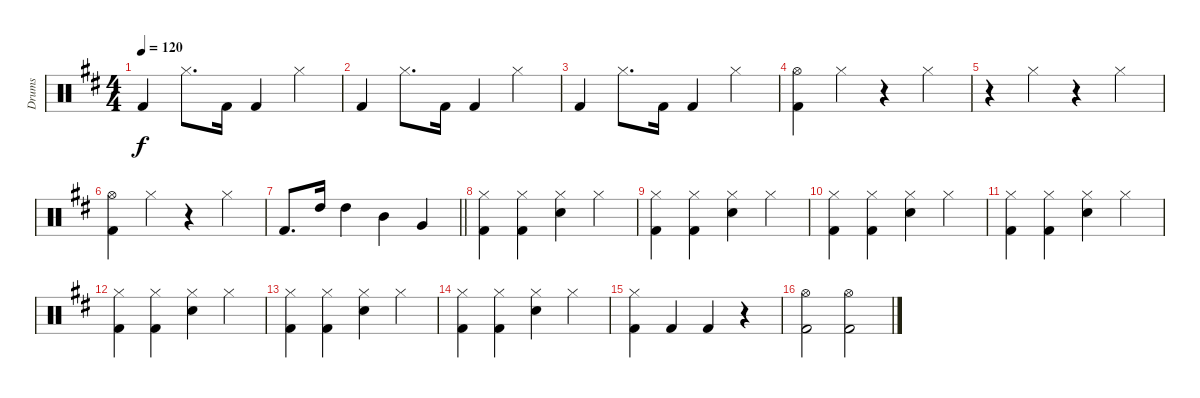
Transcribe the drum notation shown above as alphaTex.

\track ("Drums" "Drums") {instrument percussion}
\staff {score}
\articulation defaults
\ts (4 4)
\tempo 120
\clef neutral
\ks d "Kick (hit) 2".4{dy f} "Hi-Hat (closed)".8{d} "Kick (hit) 2".16 "Kick (hit) 2".4 "Hi-Hat (closed)".4
|
"Kick (hit) 2".4 "Hi-Hat (closed)".8{d} "Kick (hit) 2".16 "Kick (hit) 2".4 "Hi-Hat (closed)".4 |
"Kick (hit) 2".4 "Hi-Hat (closed)".8{d} "Kick (hit) 2".16 "Kick (hit) 2".4 "Hi-Hat (closed)".4 |
("Hi-Hat (open)" "Kick (hit) 2").4 "Hi-Hat (closed)".4 r.4 "Hi-Hat (closed)".4 |
r.4 "Hi-Hat (closed)".4 r.4 "Hi-Hat (closed)".4 |
("Hi-Hat (open)" "Kick (hit) 2").4 "Hi-Hat (closed)".4 r.4 "Hi-Hat (closed)".4 |
\barLineRight lightlight "Kick (hit) 2".8{d} "High Tom (hit)".16 "High Tom (hit)".4 "Mid Tom (hit)".4 "Very Low Tom (hit)".4
|
("Hi-Hat (closed)" "Kick (hit) 2").4 ("Hi-Hat (closed)" "Kick (hit) 2").4 ("Hi-Hat (closed)" "Snare (hit) 2").4 "Hi-Hat (closed)".4 |
("Hi-Hat (closed)" "Kick (hit) 2").4 ("Hi-Hat (closed)" "Kick (hit) 2").4 ("Hi-Hat (closed)" "Snare (hit) 2").4 "Hi-Hat (closed)".4 |
("Hi-Hat (closed)" "Kick (hit) 2").4 ("Hi-Hat (closed)" "Kick (hit) 2").4 ("Hi-Hat (closed)" "Snare (hit) 2").4 "Hi-Hat (closed)".4 |
("Hi-Hat (closed)" "Kick (hit) 2").4 ("Hi-Hat (closed)" "Kick (hit) 2").4 ("Hi-Hat (closed)" "Snare (hit) 2").4 "Hi-Hat (closed)".4 |
("Hi-Hat (closed)" "Kick (hit) 2").4 ("Hi-Hat (closed)" "Kick (hit) 2").4 ("Hi-Hat (closed)" "Snare (hit) 2").4 "Hi-Hat (closed)".4 |
("Hi-Hat (closed)" "Kick (hit) 2").4 ("Hi-Hat (closed)" "Kick (hit) 2").4 ("Hi-Hat (closed)" "Snare (hit) 2").4 "Hi-Hat (closed)".4 |
("Hi-Hat (closed)" "Kick (hit) 2").4 ("Hi-Hat (closed)" "Kick (hit) 2").4 ("Hi-Hat (closed)" "Snare (hit) 2").4 "Hi-Hat (closed)".4 |
("Hi-Hat (closed)" "Kick (hit) 2").4 "Kick (hit) 2".4 "Kick (hit) 2".4 r.4 |
("Hi-Hat (open)" "Kick (hit) 2").2 ("Hi-Hat (open)" "Kick (hit) 2").2
